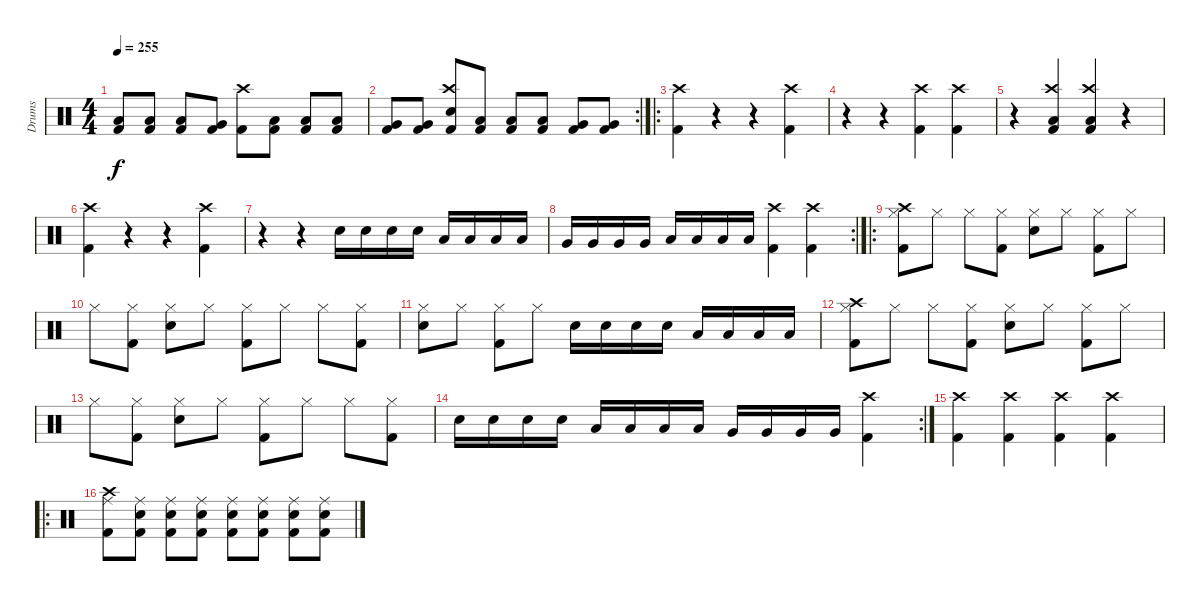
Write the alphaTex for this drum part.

\track ("Drums" "Drums") {instrument percussion}
\staff {score}
\articulation defaults
\ts (4 4)
\tempo 255
\clef neutral
\ks c
("Low Floor Tom (hit)" "Kick (hit) 2").8{dy f} ("Low Floor Tom (hit)" "Kick (hit) 2").8 ("Low Floor Tom (hit)" "Kick (hit) 2").8 ("Very Low Tom (hit)" "Kick (hit) 2").8 ("Crash high (hit)" "Kick (hit) 2").8 ("Low Floor Tom (hit)" "Kick (hit) 2").8 ("Low Floor Tom (hit)" "Kick (hit) 2").8 ("Low Floor Tom (hit)" "Kick (hit) 2").8 |
\rc 2
("Very Low Tom (hit)" "Kick (hit) 2").8 ("Very Low Tom (hit)" "Kick (hit) 2").8 ("Snare (hit) 2" "Crash high (hit)" "Kick (hit) 2").8 ("Low Floor Tom (hit)" "Kick (hit) 2").8 ("Low Floor Tom (hit)" "Kick (hit) 2").8 ("Low Floor Tom (hit)" "Kick (hit) 2").8 ("Very Low Tom (hit)" "Kick (hit) 2").8 ("Very Low Tom (hit)" "Kick (hit) 2").8 |
\ro
("Crash high (hit)" "Kick (hit) 2").4 r.4 r.4 ("Crash high (hit)" "Kick (hit) 2").4 |
r.4 r.4 ("Crash high (hit)" "Kick (hit) 2").4 ("Crash high (hit)" "Kick (hit) 2").4 |
r.4 ("Crash high (hit)" "Low Tom (hit)" "Kick (hit) 2").4 ("Crash high (hit)" "Low Tom (hit)" "Kick (hit) 2").4 r.4 |
("Crash high (hit)" "Kick (hit) 2").4 r.4 r.4 ("Crash high (hit)" "Kick (hit) 2").4 |
r.4 r.4 "Snare (hit) 2".16 "Snare (hit) 2".16 "Snare (hit) 2".16 "Snare (hit) 2".16 "Low Floor Tom (hit)".16 "Low Floor Tom (hit)".16 "Low Floor Tom (hit)".16 "Low Floor Tom (hit)".16 |
\rc 2 "Very Low Tom (hit)".16 "Very Low Tom (hit)".16 "Very Low Tom (hit)".16 "Very Low Tom (hit)".16 "Low Tom (hit)".16 "Low Tom (hit)".16 "Low Tom (hit)".16 "Low Tom (hit)".16
("Crash high (hit)" "Kick (hit) 2").4 ("Crash high (hit)" "Kick (hit) 2").4 |
\ro
("Crash high (hit)" "Hi-Hat (closed)" "Kick (hit) 2").8 "Hi-Hat (closed)".8 "Hi-Hat (closed)".8 ("Hi-Hat (closed)" "Kick (hit) 2").8 ("Snare (hit) 2" "Hi-Hat (closed)").8 "Hi-Hat (closed)".8 ("Hi-Hat (closed)" "Kick (hit) 2").8 "Hi-Hat (closed)".8 |
"Hi-Hat (closed)".8 ("Hi-Hat (closed)" "Kick (hit) 2").8 ("Snare (hit) 2" "Hi-Hat (closed)").8 "Hi-Hat (closed)".8 ("Hi-Hat (closed)" "Kick (hit) 2").8 "Hi-Hat (closed)".8 "Hi-Hat (closed)".8 ("Hi-Hat (closed)" "Kick (hit) 2").8 |
("Snare (hit) 2" "Hi-Hat (closed)").8 "Hi-Hat (closed)".8 ("Hi-Hat (closed)" "Kick (hit) 2").8 "Hi-Hat (closed)".8 "Snare (hit) 2".16 "Snare (hit) 2".16 "Snare (hit) 2".16 "Snare (hit) 2".16 "Low Floor Tom (hit)".16 "Low Floor Tom (hit)".16 "Low Tom (hit)".16 "Low Tom (hit)".16 |
("Crash high (hit)" "Hi-Hat (closed)" "Kick (hit) 2").8 "Hi-Hat (closed)".8 "Hi-Hat (closed)".8 ("Hi-Hat (closed)" "Kick (hit) 2").8 ("Snare (hit) 2" "Hi-Hat (closed)").8 "Hi-Hat (closed)".8 ("Hi-Hat (closed)" "Kick (hit) 2").8 "Hi-Hat (closed)".8 |
"Hi-Hat (closed)".8 ("Hi-Hat (closed)" "Kick (hit) 2").8 ("Snare (hit) 2" "Hi-Hat (closed)").8 "Hi-Hat (closed)".8 ("Hi-Hat (closed)" "Kick (hit) 2").8 "Hi-Hat (closed)".8 "Hi-Hat (closed)".8 ("Hi-Hat (closed)" "Kick (hit) 2").8 |
\rc 2 "Snare (hit) 2".16 "Snare (hit) 2".16 "Snare (hit) 2".16 "Snare (hit) 2".16 "Low Floor Tom (hit)".16 "Low Floor Tom (hit)".16 "Low Floor Tom (hit)".16 "Low Floor Tom (hit)".16 "Very Low Tom (hit)".16 "Very Low Tom (hit)".16 "Very Low Tom (hit)".16 "Very Low Tom (hit)".16
("Crash high (hit)" "Kick (hit) 2").4 |
("Crash high (hit)" "Kick (hit) 2").4 ("Crash high (hit)" "Kick (hit) 2").4 ("Crash high (hit)" "Kick (hit) 2").4 ("Crash high (hit)" "Kick (hit) 2").4 |
\ro
("Crash high (hit)" "Ride (middle)" "Kick (hit) 2").8 ("Snare (hit) 2" "Ride (middle)" "Kick (hit) 2").8 ("Snare (hit) 2" "Ride (middle)" "Kick (hit) 2").8 ("Snare (hit) 2" "Ride (middle)" "Kick (hit) 2").8 ("Snare (hit) 2" "Ride (middle)" "Kick (hit) 2").8 ("Snare (hit) 2" "Ride (middle)" "Kick (hit) 2").8 ("Snare (hit) 2" "Ride (middle)" "Kick (hit) 2").8 ("Snare (hit) 2" "Ride (middle)" "Kick (hit) 2").8
